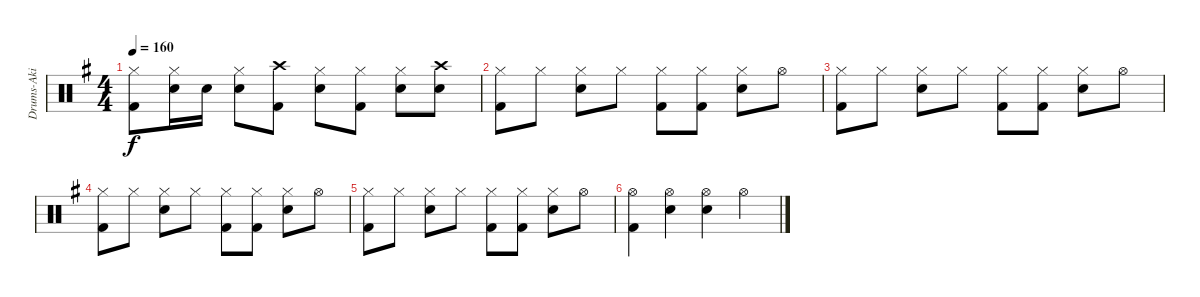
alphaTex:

\track ("Drums-Aki" "Drums-Aki") {instrument percussion}
\staff {score}
\articulation defaults
\ts (4 4)
\tempo 160
\clef neutral
\ks g
("Hi-Hat (closed)" "Kick (hit) 2").8{dy f} ("Hi-Hat (closed)" "Electric Snare (hit)").16 "Electric Snare (hit)".16 ("Hi-Hat (closed)" "Electric Snare (hit)").8 ("Crash high (hit)" "Kick (hit) 2").8 ("Hi-Hat (closed)" "Electric Snare (hit)").8 ("Hi-Hat (closed)" "Kick (hit) 2").8 ("Hi-Hat (closed)" "Electric Snare (hit)").8 ("Crash high (hit)" "Electric Snare (hit)").8 |
("Hi-Hat (closed)" "Kick (hit) 2").8 "Hi-Hat (closed)".8 ("Hi-Hat (closed)" "Electric Snare (hit)").8 "Hi-Hat (closed)".8 ("Hi-Hat (closed)" "Kick (hit) 2").8 ("Hi-Hat (closed)" "Kick (hit) 2").8 ("Hi-Hat (closed)" "Electric Snare (hit)").8 "Hi-Hat (open)".8 |
("Hi-Hat (closed)" "Kick (hit) 2").8 "Hi-Hat (closed)".8 ("Hi-Hat (closed)" "Electric Snare (hit)").8 "Hi-Hat (closed)".8 ("Hi-Hat (closed)" "Kick (hit) 2").8 ("Hi-Hat (closed)" "Kick (hit) 2").8 ("Hi-Hat (closed)" "Electric Snare (hit)").8 "Hi-Hat (open)".8 |
("Hi-Hat (closed)" "Kick (hit) 2").8 "Hi-Hat (closed)".8 ("Hi-Hat (closed)" "Electric Snare (hit)").8 "Hi-Hat (closed)".8 ("Hi-Hat (closed)" "Kick (hit) 2").8 ("Hi-Hat (closed)" "Kick (hit) 2").8 ("Hi-Hat (closed)" "Electric Snare (hit)").8 "Hi-Hat (open)".8 |
("Hi-Hat (closed)" "Kick (hit) 2").8 "Hi-Hat (closed)".8 ("Hi-Hat (closed)" "Electric Snare (hit)").8 "Hi-Hat (closed)".8 ("Hi-Hat (closed)" "Kick (hit) 2").8 ("Hi-Hat (closed)" "Kick (hit) 2").8 ("Hi-Hat (closed)" "Electric Snare (hit)").8 "Hi-Hat (open)".8 |
("Hi-Hat (open)" "Kick (hit) 2").4 ("Hi-Hat (open)" "Electric Snare (hit)").4 ("Hi-Hat (open)" "Electric Snare (hit)").4 "Hi-Hat (open)".4
